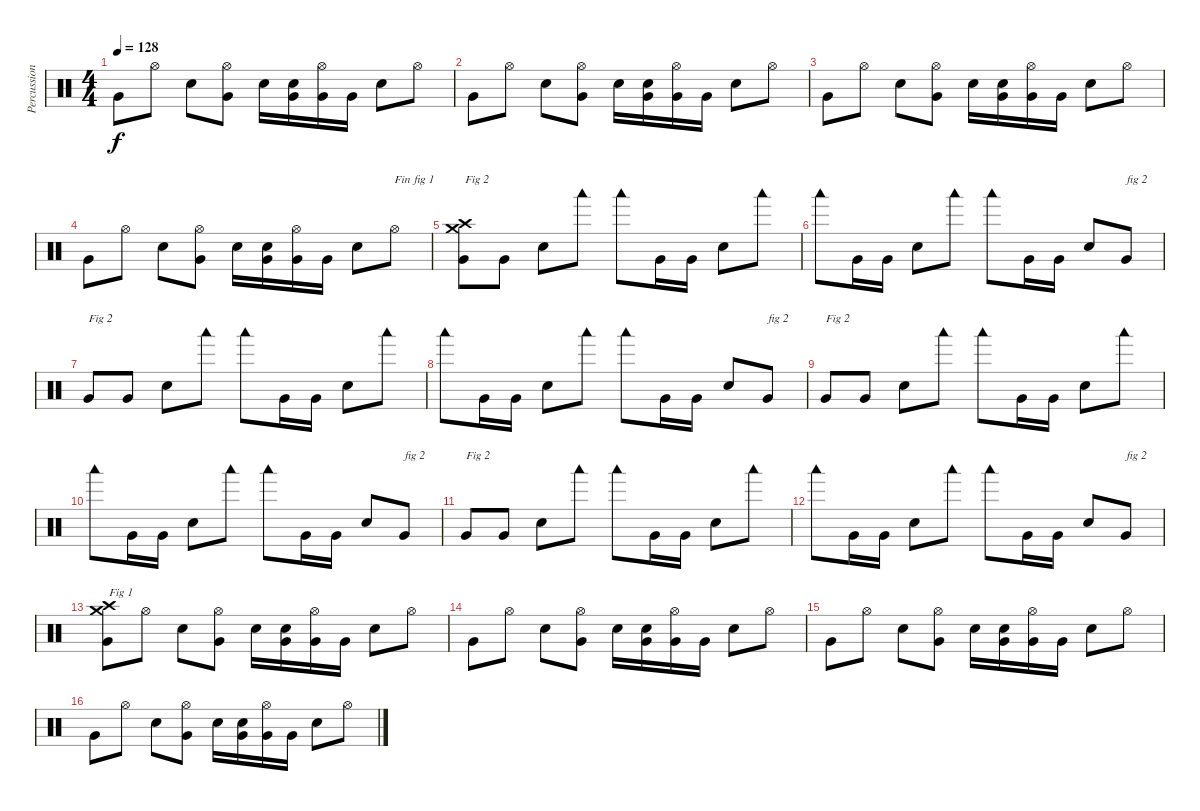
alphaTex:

\track ("Percussions" "Percussion") {instrument percussion}
\staff {score}
\articulation defaults
\ts (4 4)
\tempo 128
\clef neutral
\ks c "Very Low Tom (hit)".8{dy f} "Hi-Hat (open)".8 "Snare (hit) 2".8
("Very Low Tom (hit)" "Hi-Hat (open)").8 "Snare (hit) 2".16 ("Very Low Tom (hit)" "Snare (hit) 2").16 ("Very Low Tom (hit)" "Hi-Hat (open)").16 "Very Low Tom (hit)".16 "Snare (hit) 2".8 "Hi-Hat (open)".8 |
"Very Low Tom (hit)".8 "Hi-Hat (open)".8 "Snare (hit) 2".8 ("Very Low Tom (hit)" "Hi-Hat (open)").8 "Snare (hit) 2".16 ("Very Low Tom (hit)" "Snare (hit) 2").16 ("Very Low Tom (hit)" "Hi-Hat (open)").16 "Very Low Tom (hit)".16 "Snare (hit) 2".8 "Hi-Hat (open)".8 |
"Very Low Tom (hit)".8 "Hi-Hat (open)".8 "Snare (hit) 2".8 ("Very Low Tom (hit)" "Hi-Hat (open)").8 "Snare (hit) 2".16 ("Very Low Tom (hit)" "Snare (hit) 2").16 ("Very Low Tom (hit)" "Hi-Hat (open)").16 "Very Low Tom (hit)".16 "Snare (hit) 2".8 "Hi-Hat (open)".8 |
"Very Low Tom (hit)".8 "Hi-Hat (open)".8 "Snare (hit) 2".8 ("Very Low Tom (hit)" "Hi-Hat (open)").8 "Snare (hit) 2".16 ("Very Low Tom (hit)" "Snare (hit) 2").16 ("Very Low Tom (hit)" "Hi-Hat (open)").16 "Very Low Tom (hit)".16 "Snare (hit) 2".8 "Hi-Hat (open)".8{txt "Fin fig 1"} |
("Very Low Tom (hit)" "Crash medium (hit)" "Crash high (hit)").8{txt "Fig 2"} "Very Low Tom (hit)".8 "Snare (hit) 2".8 "Woodblock low (hit)".8 "Woodblock low (hit)".8 "Very Low Tom (hit)".16 "Very Low Tom (hit)".16 "Snare (hit) 2".8 "Woodblock low (hit)".8 |
"Woodblock low (hit)".8 "Very Low Tom (hit)".16 "Very Low Tom (hit)".16 "Snare (hit) 2".8 "Woodblock low (hit)".8 "Woodblock low (hit)".8 "Very Low Tom (hit)".16 "Very Low Tom (hit)".16 "Snare (hit) 2".8 "Very Low Tom (hit)".8{txt "fig 2"} |
"Very Low Tom (hit)".8{txt "Fig 2"} "Very Low Tom (hit)".8 "Snare (hit) 2".8 "Woodblock low (hit)".8 "Woodblock low (hit)".8 "Very Low Tom (hit)".16 "Very Low Tom (hit)".16 "Snare (hit) 2".8 "Woodblock low (hit)".8 |
"Woodblock low (hit)".8 "Very Low Tom (hit)".16 "Very Low Tom (hit)".16 "Snare (hit) 2".8 "Woodblock low (hit)".8 "Woodblock low (hit)".8 "Very Low Tom (hit)".16 "Very Low Tom (hit)".16 "Snare (hit) 2".8 "Very Low Tom (hit)".8{txt "fig 2"} |
"Very Low Tom (hit)".8{txt "Fig 2"} "Very Low Tom (hit)".8 "Snare (hit) 2".8 "Woodblock low (hit)".8 "Woodblock low (hit)".8 "Very Low Tom (hit)".16 "Very Low Tom (hit)".16 "Snare (hit) 2".8 "Woodblock low (hit)".8 |
"Woodblock low (hit)".8 "Very Low Tom (hit)".16 "Very Low Tom (hit)".16 "Snare (hit) 2".8 "Woodblock low (hit)".8 "Woodblock low (hit)".8 "Very Low Tom (hit)".16 "Very Low Tom (hit)".16 "Snare (hit) 2".8 "Very Low Tom (hit)".8{txt "fig 2"} |
"Very Low Tom (hit)".8{txt "Fig 2"} "Very Low Tom (hit)".8 "Snare (hit) 2".8 "Woodblock low (hit)".8 "Woodblock low (hit)".8 "Very Low Tom (hit)".16 "Very Low Tom (hit)".16 "Snare (hit) 2".8 "Woodblock low (hit)".8 |
"Woodblock low (hit)".8 "Very Low Tom (hit)".16 "Very Low Tom (hit)".16 "Snare (hit) 2".8 "Woodblock low (hit)".8 "Woodblock low (hit)".8 "Very Low Tom (hit)".16 "Very Low Tom (hit)".16 "Snare (hit) 2".8 "Very Low Tom (hit)".8{txt "fig 2"} |
("Very Low Tom (hit)" "Crash medium (hit)" "Crash high (hit)").8{txt "Fig 1"} "Hi-Hat (open)".8 "Snare (hit) 2".8 ("Very Low Tom (hit)" "Hi-Hat (open)").8 "Snare (hit) 2".16 ("Very Low Tom (hit)" "Snare (hit) 2").16 ("Very Low Tom (hit)" "Hi-Hat (open)").16 "Very Low Tom (hit)".16 "Snare (hit) 2".8 "Hi-Hat (open)".8 |
"Very Low Tom (hit)".8 "Hi-Hat (open)".8 "Snare (hit) 2".8 ("Very Low Tom (hit)" "Hi-Hat (open)").8 "Snare (hit) 2".16 ("Very Low Tom (hit)" "Snare (hit) 2").16 ("Very Low Tom (hit)" "Hi-Hat (open)").16 "Very Low Tom (hit)".16 "Snare (hit) 2".8 "Hi-Hat (open)".8 |
"Very Low Tom (hit)".8 "Hi-Hat (open)".8 "Snare (hit) 2".8 ("Very Low Tom (hit)" "Hi-Hat (open)").8 "Snare (hit) 2".16 ("Very Low Tom (hit)" "Snare (hit) 2").16 ("Very Low Tom (hit)" "Hi-Hat (open)").16 "Very Low Tom (hit)".16 "Snare (hit) 2".8 "Hi-Hat (open)".8 |
"Very Low Tom (hit)".8 "Hi-Hat (open)".8 "Snare (hit) 2".8 ("Very Low Tom (hit)" "Hi-Hat (open)").8 "Snare (hit) 2".16 ("Very Low Tom (hit)" "Snare (hit) 2").16 ("Very Low Tom (hit)" "Hi-Hat (open)").16 "Very Low Tom (hit)".16 "Snare (hit) 2".8 "Hi-Hat (open)".8
